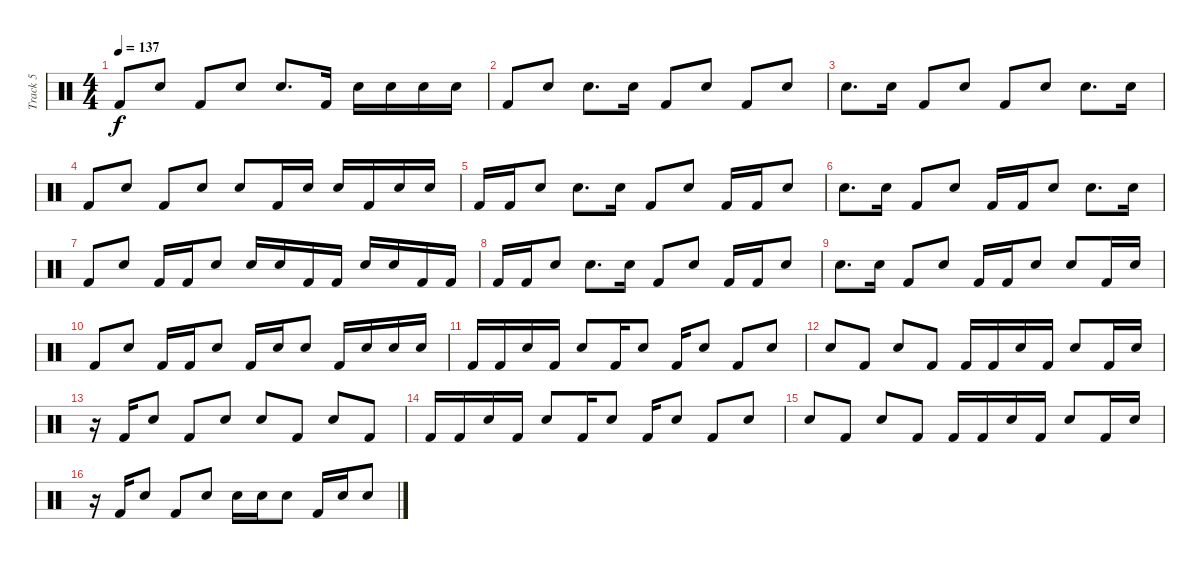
\track ("Track 5" "Track 5") {instrument percussion}
\staff {score}
\articulation defaults
\ts (4 4)
\tempo 137
\clef neutral
\ks c "Kick (hit) 2".8{dy f} "Snare (hit) 2".8 "Kick (hit) 2".8 "Snare (hit) 2".8 "Snare (hit) 2".8{d} "Kick (hit) 2".16 "Snare (hit) 2".16 "Snare (hit) 2".16 "Snare (hit) 2".16 "Snare (hit) 2".16
|
"Kick (hit) 2".8 "Snare (hit) 2".8 "Snare (hit) 2".8{d} "Snare (hit) 2".16 "Kick (hit) 2".8 "Snare (hit) 2".8 "Kick (hit) 2".8 "Snare (hit) 2".8 |
"Snare (hit) 2".8{d} "Snare (hit) 2".16 "Kick (hit) 2".8 "Snare (hit) 2".8 "Kick (hit) 2".8 "Snare (hit) 2".8 "Snare (hit) 2".8{d} "Snare (hit) 2".16 |
"Kick (hit) 2".8 "Snare (hit) 2".8 "Kick (hit) 2".8 "Snare (hit) 2".8 "Snare (hit) 2".8 "Kick (hit) 2".16 "Snare (hit) 2".16 "Snare (hit) 2".16 "Kick (hit) 2".16 "Snare (hit) 2".16 "Snare (hit) 2".16 |
"Kick (hit) 2".16 "Kick (hit) 2".16 "Snare (hit) 2".8 "Snare (hit) 2".8{d} "Snare (hit) 2".16 "Kick (hit) 2".8 "Snare (hit) 2".8 "Kick (hit) 2".16 "Kick (hit) 2".16 "Snare (hit) 2".8 |
"Snare (hit) 2".8{d} "Snare (hit) 2".16 "Kick (hit) 2".8 "Snare (hit) 2".8 "Kick (hit) 2".16 "Kick (hit) 2".16 "Snare (hit) 2".8 "Snare (hit) 2".8{d} "Snare (hit) 2".16 |
"Kick (hit) 2".8 "Snare (hit) 2".8 "Kick (hit) 2".16 "Kick (hit) 2".16 "Snare (hit) 2".8 "Snare (hit) 2".16 "Snare (hit) 2".16 "Kick (hit) 2".16 "Kick (hit) 2".16 "Snare (hit) 2".16 "Snare (hit) 2".16 "Kick (hit) 2".16 "Kick (hit) 2".16 |
"Kick (hit) 2".16 "Kick (hit) 2".16 "Snare (hit) 2".8 "Snare (hit) 2".8{d} "Snare (hit) 2".16 "Kick (hit) 2".8 "Snare (hit) 2".8 "Kick (hit) 2".16 "Kick (hit) 2".16 "Snare (hit) 2".8 |
"Snare (hit) 2".8{d} "Snare (hit) 2".16 "Kick (hit) 2".8 "Snare (hit) 2".8 "Kick (hit) 2".16 "Kick (hit) 2".16 "Snare (hit) 2".8 "Snare (hit) 2".8 "Kick (hit) 2".16 "Snare (hit) 2".16 |
"Kick (hit) 2".8 "Snare (hit) 2".8 "Kick (hit) 2".16 "Kick (hit) 2".16 "Snare (hit) 2".8 "Kick (hit) 2".16 "Snare (hit) 2".16 "Snare (hit) 2".8 "Kick (hit) 2".16 "Snare (hit) 2".16 "Snare (hit) 2".16 "Snare (hit) 2".16 |
"Kick (hit) 2".16 "Kick (hit) 2".16 "Snare (hit) 2".16 "Kick (hit) 2".16 "Snare (hit) 2".8 "Kick (hit) 2".16 "Snare (hit) 2".8 "Kick (hit) 2".16 "Snare (hit) 2".8 "Kick (hit) 2".8 "Snare (hit) 2".8 |
"Snare (hit) 2".8 "Kick (hit) 2".8 "Snare (hit) 2".8 "Kick (hit) 2".8 "Kick (hit) 2".16 "Kick (hit) 2".16 "Snare (hit) 2".16 "Kick (hit) 2".16 "Snare (hit) 2".8 "Kick (hit) 2".16 "Snare (hit) 2".16 |
r.16 "Kick (hit) 2".16 "Snare (hit) 2".8 "Kick (hit) 2".8 "Snare (hit) 2".8 "Snare (hit) 2".8 "Kick (hit) 2".8 "Snare (hit) 2".8 "Kick (hit) 2".8 |
"Kick (hit) 2".16 "Kick (hit) 2".16 "Snare (hit) 2".16 "Kick (hit) 2".16 "Snare (hit) 2".8 "Kick (hit) 2".16 "Snare (hit) 2".8 "Kick (hit) 2".16 "Snare (hit) 2".8 "Kick (hit) 2".8 "Snare (hit) 2".8 |
"Snare (hit) 2".8 "Kick (hit) 2".8 "Snare (hit) 2".8 "Kick (hit) 2".8 "Kick (hit) 2".16 "Kick (hit) 2".16 "Snare (hit) 2".16 "Kick (hit) 2".16 "Snare (hit) 2".8 "Kick (hit) 2".16 "Snare (hit) 2".16 |
r.16 "Kick (hit) 2".16 "Snare (hit) 2".8 "Kick (hit) 2".8 "Snare (hit) 2".8 "Snare (hit) 2".16 "Snare (hit) 2".16 "Snare (hit) 2".8 "Kick (hit) 2".16 "Snare (hit) 2".16 "Snare (hit) 2".8
